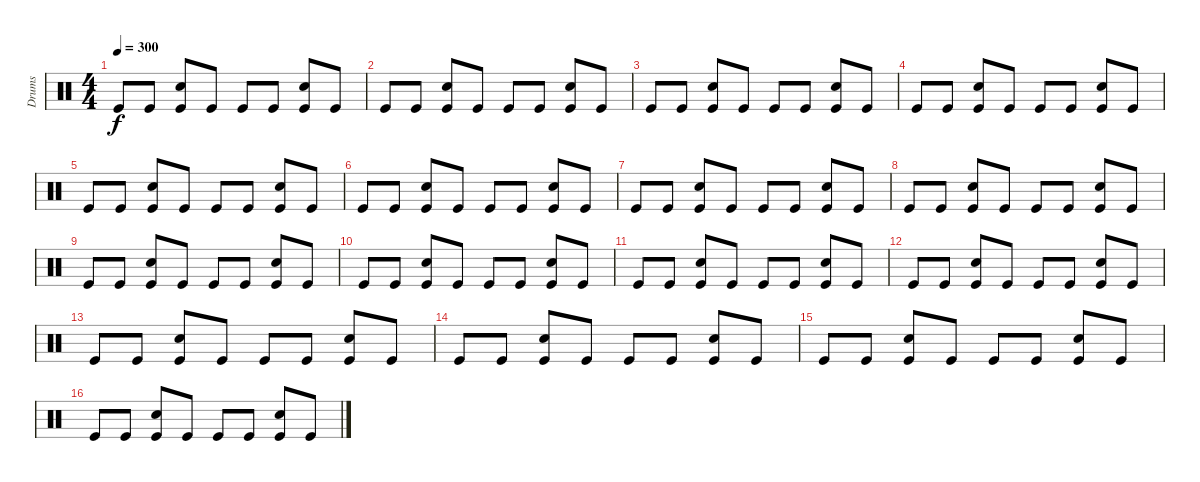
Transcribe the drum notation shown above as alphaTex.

\track ("Drums" "Drums") {instrument percussion}
\staff {score}
\articulation defaults
\ts (4 4)
\tempo 300
\clef neutral
\ks c "Kick (hit)".8{dy f} "Kick (hit)".8
("Electric Snare (hit)" "Kick (hit)").8 "Kick (hit)".8 "Kick (hit)".8 "Kick (hit)".8 ("Electric Snare (hit)" "Kick (hit)").8 "Kick (hit)".8 |
"Kick (hit)".8 "Kick (hit)".8 ("Electric Snare (hit)" "Kick (hit)").8 "Kick (hit)".8 "Kick (hit)".8 "Kick (hit)".8 ("Electric Snare (hit)" "Kick (hit)").8 "Kick (hit)".8 |
"Kick (hit)".8 "Kick (hit)".8 ("Electric Snare (hit)" "Kick (hit)").8 "Kick (hit)".8 "Kick (hit)".8 "Kick (hit)".8 ("Electric Snare (hit)" "Kick (hit)").8 "Kick (hit)".8 |
"Kick (hit)".8 "Kick (hit)".8 ("Electric Snare (hit)" "Kick (hit)").8 "Kick (hit)".8 "Kick (hit)".8 "Kick (hit)".8 ("Electric Snare (hit)" "Kick (hit)").8 "Kick (hit)".8 |
"Kick (hit)".8 "Kick (hit)".8 ("Electric Snare (hit)" "Kick (hit)").8 "Kick (hit)".8 "Kick (hit)".8 "Kick (hit)".8 ("Electric Snare (hit)" "Kick (hit)").8 "Kick (hit)".8 |
"Kick (hit)".8 "Kick (hit)".8 ("Electric Snare (hit)" "Kick (hit)").8 "Kick (hit)".8 "Kick (hit)".8 "Kick (hit)".8 ("Electric Snare (hit)" "Kick (hit)").8 "Kick (hit)".8 |
"Kick (hit)".8 "Kick (hit)".8 ("Electric Snare (hit)" "Kick (hit)").8 "Kick (hit)".8 "Kick (hit)".8 "Kick (hit)".8 ("Electric Snare (hit)" "Kick (hit)").8 "Kick (hit)".8 |
"Kick (hit)".8 "Kick (hit)".8 ("Electric Snare (hit)" "Kick (hit)").8 "Kick (hit)".8 "Kick (hit)".8 "Kick (hit)".8 ("Electric Snare (hit)" "Kick (hit)").8 "Kick (hit)".8 |
"Kick (hit)".8 "Kick (hit)".8 ("Electric Snare (hit)" "Kick (hit)").8 "Kick (hit)".8 "Kick (hit)".8 "Kick (hit)".8 ("Electric Snare (hit)" "Kick (hit)").8 "Kick (hit)".8 |
"Kick (hit)".8 "Kick (hit)".8 ("Electric Snare (hit)" "Kick (hit)").8 "Kick (hit)".8 "Kick (hit)".8 "Kick (hit)".8 ("Electric Snare (hit)" "Kick (hit)").8 "Kick (hit)".8 |
"Kick (hit)".8 "Kick (hit)".8 ("Electric Snare (hit)" "Kick (hit)").8 "Kick (hit)".8 "Kick (hit)".8 "Kick (hit)".8 ("Electric Snare (hit)" "Kick (hit)").8 "Kick (hit)".8 |
"Kick (hit)".8 "Kick (hit)".8 ("Electric Snare (hit)" "Kick (hit)").8 "Kick (hit)".8 "Kick (hit)".8 "Kick (hit)".8 ("Electric Snare (hit)" "Kick (hit)").8 "Kick (hit)".8 |
"Kick (hit)".8 "Kick (hit)".8 ("Electric Snare (hit)" "Kick (hit)").8 "Kick (hit)".8 "Kick (hit)".8 "Kick (hit)".8 ("Electric Snare (hit)" "Kick (hit)").8 "Kick (hit)".8 |
"Kick (hit)".8 "Kick (hit)".8 ("Electric Snare (hit)" "Kick (hit)").8 "Kick (hit)".8 "Kick (hit)".8 "Kick (hit)".8 ("Electric Snare (hit)" "Kick (hit)").8 "Kick (hit)".8 |
"Kick (hit)".8 "Kick (hit)".8 ("Electric Snare (hit)" "Kick (hit)").8 "Kick (hit)".8 "Kick (hit)".8 "Kick (hit)".8 ("Electric Snare (hit)" "Kick (hit)").8 "Kick (hit)".8 |
"Kick (hit)".8 "Kick (hit)".8 ("Electric Snare (hit)" "Kick (hit)").8 "Kick (hit)".8 "Kick (hit)".8 "Kick (hit)".8 ("Electric Snare (hit)" "Kick (hit)").8 "Kick (hit)".8
